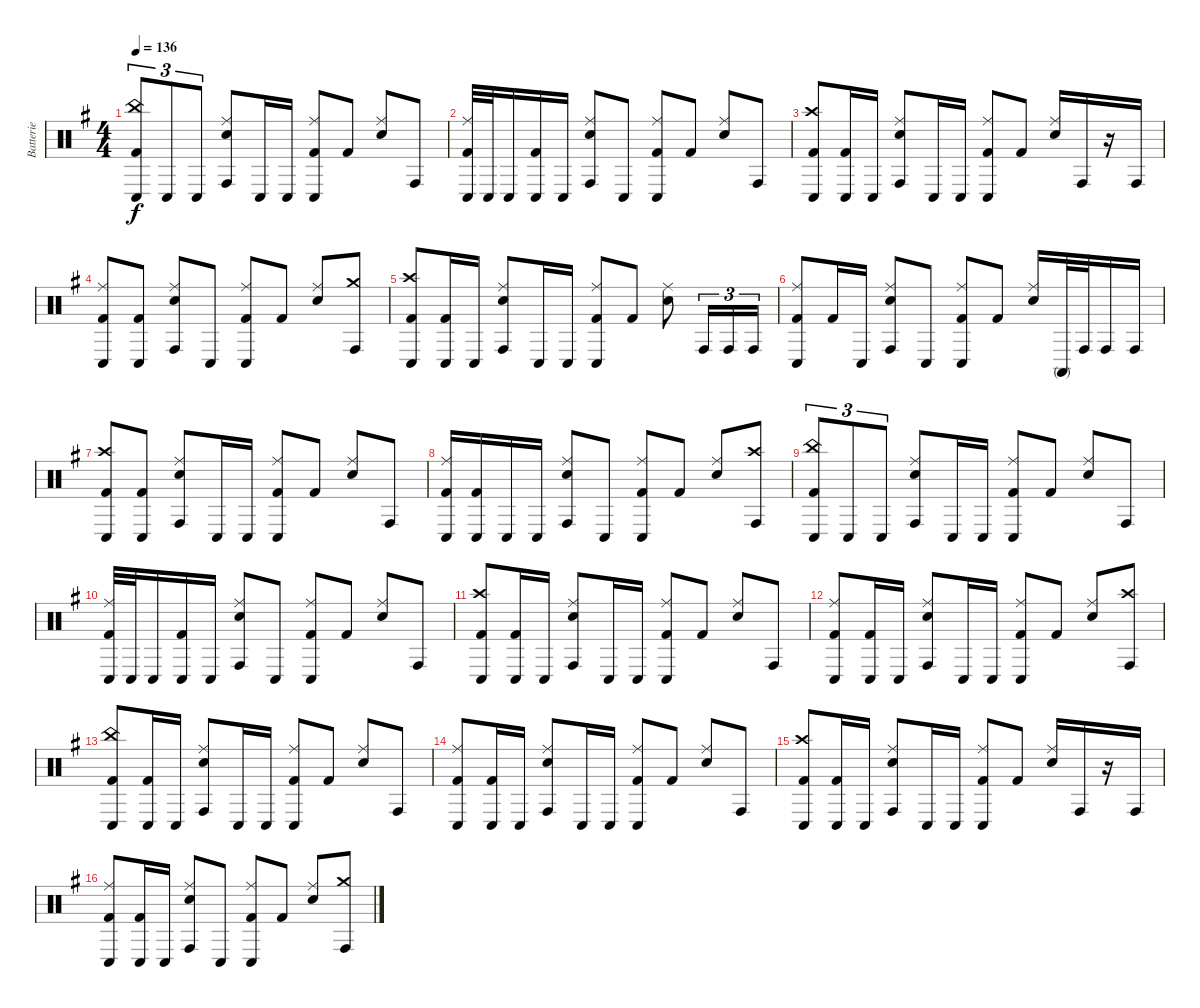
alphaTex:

\track ("Batterie" "Batterie") {instrument percussion}
\staff {score}
\articulation defaults
\ts (4 4)
\tempo 136
\clef neutral
\ks g
("China (hit)" "Conga low (hit)" "Kick (hit) 2").8{tu (3 2) dy f} "Conga low (hit)".8{tu (3 2)} "Conga low (hit)".8{tu (3 2)} ("Ride (middle)" "Conga high (hit)" "Snare (hit) 2").8 "Conga low (hit)".16 "Conga low (hit)".16 ("Ride (middle)" "Conga low (hit)" "Kick (hit) 2").8 "Kick (hit) 2".8 ("Ride (middle)" "Snare (hit) 2").8 "Conga high (hit)".8 |
("Ride (middle)" "Conga low (hit)" "Kick (hit) 2").32 "Conga low (hit)".32 "Conga low (hit)".16 ("Conga low (hit)" "Kick (hit) 2").16 "Conga low (hit)".16 ("Ride (middle)" "Conga high (hit)" "Snare (hit) 2").8 "Conga low (hit)".8 ("Ride (middle)" "Conga low (hit)" "Kick (hit) 2").8 "Kick (hit) 2".8 ("Ride (middle)" "Snare (hit) 2").8 "Conga high (hit)".8 |
("Crash high (hit)" "Conga low (hit)" "Kick (hit) 2").8 ("Conga low (hit)" "Kick (hit) 2").16 "Conga low (hit)".16 ("Ride (middle)" "Conga high (hit)" "Snare (hit) 2").8 "Conga low (hit)".16 "Conga low (hit)".16 ("Ride (middle)" "Conga low (hit)" "Kick (hit) 2").8 "Kick (hit) 2".8 ("Ride (middle)" "Snare (hit) 2").16 "Conga high (hit)".16 r.16 "Conga high (hit)".16 |
("Ride (middle)" "Conga low (hit)" "Kick (hit) 2").8 ("Conga low (hit)" "Kick (hit) 2").8 ("Ride (middle)" "Conga high (hit)" "Snare (hit) 2").8 "Conga low (hit)".8 ("Ride (middle)" "Conga low (hit)" "Kick (hit) 2").8 "Kick (hit) 2".8 ("Ride (middle)" "Snare (hit) 2").8 ("Crash medium (hit)" "Conga high (hit)").8 |
("Crash high (hit)" "Conga low (hit)" "Kick (hit) 2").8 ("Conga low (hit)" "Kick (hit) 2").16 "Conga low (hit)".16 ("Ride (middle)" "Conga high (hit)" "Snare (hit) 2").8 "Conga low (hit)".16 "Conga low (hit)".16 ("Ride (middle)" "Conga low (hit)" "Kick (hit) 2").8 "Kick (hit) 2".8 ("Ride (middle)" "Snare (hit) 2").8 "Conga high (hit)".16{tu (3 2)} "Conga high (hit)".16{tu (3 2)} "Conga high (hit)".16{tu (3 2)} |
("Ride (middle)" "Conga low (hit)" "Kick (hit) 2").8 "Kick (hit) 2".16 "Conga low (hit)".16 ("Ride (middle)" "Conga high (hit)" "Snare (hit) 2").8 "Conga low (hit)".8 ("Ride (middle)" "Conga low (hit)" "Kick (hit) 2").8 "Kick (hit) 2".8 ("Ride (middle)" "Snare (hit) 2").16 "Conga high (mute)".32 "Conga high (hit)".32 "Conga high (hit)".16 "Conga high (hit)".16 |
("Crash high (hit)" "Conga low (hit)" "Kick (hit) 2").8 ("Conga low (hit)" "Kick (hit) 2").8 ("Ride (middle)" "Conga high (hit)" "Snare (hit) 2").8 "Conga low (hit)".16 "Conga low (hit)".16 ("Ride (middle)" "Conga low (hit)" "Kick (hit) 2").8 "Kick (hit) 2".8 ("Ride (middle)" "Snare (hit) 2").8 "Conga high (hit)".8 |
("Ride (middle)" "Conga low (hit)" "Kick (hit) 2").16 ("Conga low (hit)" "Kick (hit) 2").16 "Conga low (hit)".16 "Conga low (hit)".16 ("Ride (middle)" "Conga high (hit)" "Snare (hit) 2").8 "Conga low (hit)".8 ("Ride (middle)" "Conga low (hit)" "Kick (hit) 2").8 "Kick (hit) 2".8 ("Ride (middle)" "Snare (hit) 2").8 ("Crash high (hit)" "Conga high (hit)").8 |
("China (hit)" "Conga low (hit)" "Kick (hit) 2").8{tu (3 2)} "Conga low (hit)".8{tu (3 2)} "Conga low (hit)".8{tu (3 2)} ("Ride (middle)" "Conga high (hit)" "Snare (hit) 2").8 "Conga low (hit)".16 "Conga low (hit)".16 ("Ride (middle)" "Conga low (hit)" "Kick (hit) 2").8 "Kick (hit) 2".8 ("Ride (middle)" "Snare (hit) 2").8 "Conga high (hit)".8 |
("Ride (middle)" "Conga low (hit)" "Kick (hit) 2").32 "Conga low (hit)".32 "Conga low (hit)".16 ("Conga low (hit)" "Kick (hit) 2").16 "Conga low (hit)".16 ("Ride (middle)" "Conga high (hit)" "Snare (hit) 2").8 "Conga low (hit)".8 ("Ride (middle)" "Conga low (hit)" "Kick (hit) 2").8 "Kick (hit) 2".8 ("Ride (middle)" "Snare (hit) 2").8 "Conga high (hit)".8 |
("Crash high (hit)" "Conga low (hit)" "Kick (hit) 2").8 ("Conga low (hit)" "Kick (hit) 2").16 "Conga low (hit)".16 ("Ride (middle)" "Conga high (hit)" "Snare (hit) 2").8 "Conga low (hit)".16 "Conga low (hit)".16 ("Ride (middle)" "Conga low (hit)" "Kick (hit) 2").8 "Kick (hit) 2".8 ("Ride (middle)" "Snare (hit) 2").8 "Conga high (hit)".8 |
("Ride (middle)" "Conga low (hit)" "Kick (hit) 2").8 ("Conga low (hit)" "Kick (hit) 2").16 "Conga low (hit)".16 ("Ride (middle)" "Conga high (hit)" "Snare (hit) 2").8 "Conga low (hit)".16 "Conga low (hit)".16 ("Ride (middle)" "Conga low (hit)" "Kick (hit) 2").8 "Kick (hit) 2".8 ("Ride (middle)" "Snare (hit) 2").8 ("Crash high (hit)" "Conga high (hit)").8 |
("China (hit)" "Conga low (hit)" "Kick (hit) 2").8 ("Conga low (hit)" "Kick (hit) 2").16 "Conga low (hit)".16 ("Ride (middle)" "Conga high (hit)" "Snare (hit) 2").8 "Conga low (hit)".16 "Conga low (hit)".16 ("Ride (middle)" "Conga low (hit)" "Kick (hit) 2").8 "Kick (hit) 2".8 ("Ride (middle)" "Snare (hit) 2").8 "Conga high (hit)".8 |
("Ride (middle)" "Conga low (hit)" "Kick (hit) 2").8 ("Conga low (hit)" "Kick (hit) 2").16 "Conga low (hit)".16 ("Ride (middle)" "Conga high (hit)" "Snare (hit) 2").8 "Conga low (hit)".16 "Conga low (hit)".16 ("Ride (middle)" "Conga low (hit)" "Kick (hit) 2").8 "Kick (hit) 2".8 ("Ride (middle)" "Snare (hit) 2").8 "Conga high (hit)".8 |
("Crash high (hit)" "Conga low (hit)" "Kick (hit) 2").8 ("Conga low (hit)" "Kick (hit) 2").16 "Conga low (hit)".16 ("Ride (middle)" "Conga high (hit)" "Snare (hit) 2").8 "Conga low (hit)".16 "Conga low (hit)".16 ("Ride (middle)" "Conga low (hit)" "Kick (hit) 2").8 "Kick (hit) 2".8 ("Ride (middle)" "Snare (hit) 2").16 "Conga high (hit)".16 r.16 "Conga high (hit)".16 |
("Ride (middle)" "Conga low (hit)" "Kick (hit) 2").8 ("Conga low (hit)" "Kick (hit) 2").16 "Conga low (hit)".16 ("Ride (middle)" "Conga high (hit)" "Snare (hit) 2").8 "Conga low (hit)".8 ("Ride (middle)" "Conga low (hit)" "Kick (hit) 2").8 "Kick (hit) 2".8 ("Ride (middle)" "Snare (hit) 2").8 ("Crash medium (hit)" "Conga high (hit)").8
